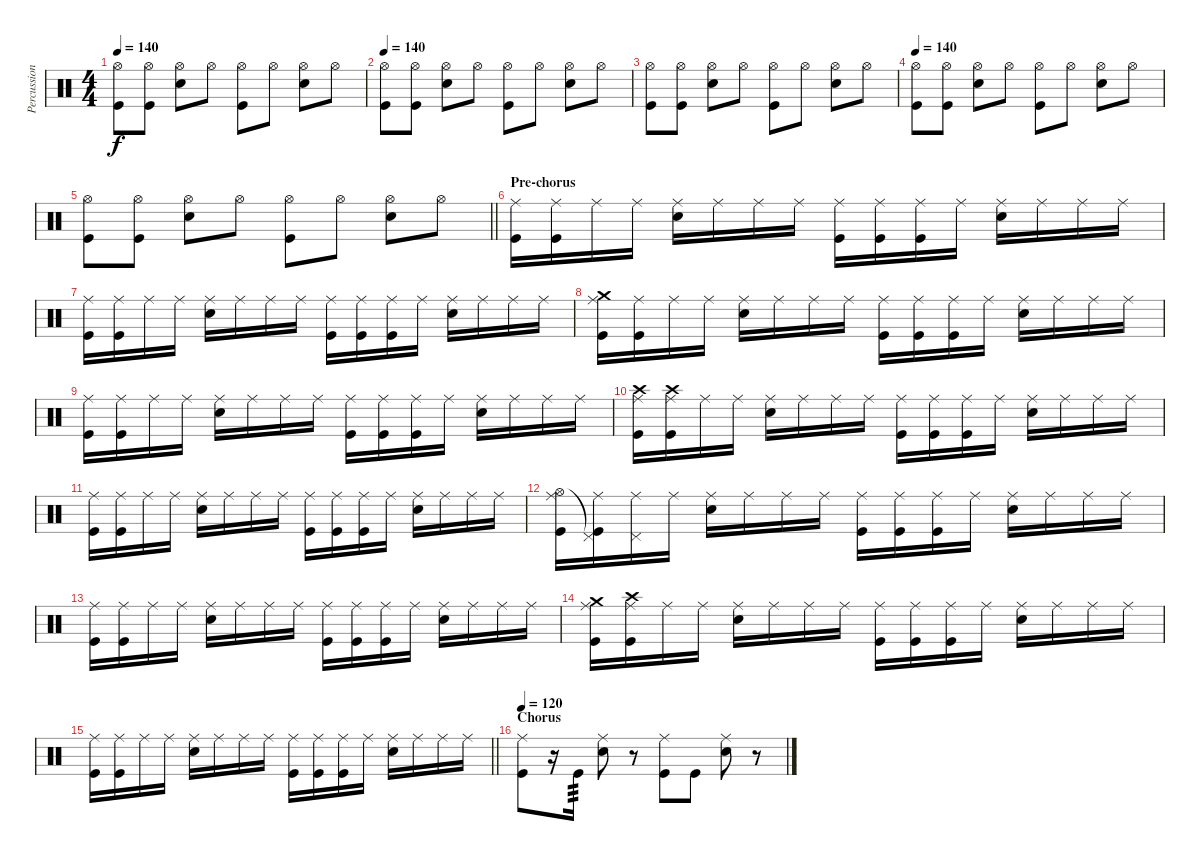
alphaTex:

\track ("Percussion" "Percussion") {instrument percussion}
\staff {score}
\articulation defaults
\ts (4 4)
\tempo 140
\clef neutral
\ks c
("Hi-Hat (open)" "Kick (hit)").8{dy f} ("Hi-Hat (open)" "Kick (hit)").8 ("Hi-Hat (open)" "Electric Snare (hit)").8 "Hi-Hat (open)".8 ("Hi-Hat (open)" "Kick (hit)").8 "Hi-Hat (open)".8 ("Hi-Hat (open)" "Electric Snare (hit)").8 "Hi-Hat (open)".8 |
\tempo 140
("Hi-Hat (open)" "Kick (hit)").8 ("Hi-Hat (open)" "Kick (hit)").8 ("Hi-Hat (open)" "Electric Snare (hit)").8 "Hi-Hat (open)".8 ("Hi-Hat (open)" "Kick (hit)").8 "Hi-Hat (open)".8 ("Hi-Hat (open)" "Electric Snare (hit)").8 "Hi-Hat (open)".8 |
("Hi-Hat (open)" "Kick (hit)").8 ("Hi-Hat (open)" "Kick (hit)").8 ("Hi-Hat (open)" "Electric Snare (hit)").8 "Hi-Hat (open)".8 ("Hi-Hat (open)" "Kick (hit)").8 "Hi-Hat (open)".8 ("Hi-Hat (open)" "Electric Snare (hit)").8 "Hi-Hat (open)".8 |
\tempo 140
("Hi-Hat (open)" "Kick (hit)").8 ("Hi-Hat (open)" "Kick (hit)").8 ("Hi-Hat (open)" "Electric Snare (hit)").8 "Hi-Hat (open)".8 ("Hi-Hat (open)" "Kick (hit)").8 "Hi-Hat (open)".8 ("Hi-Hat (open)" "Electric Snare (hit)").8 "Hi-Hat (open)".8 |
\barLineRight lightlight
("Hi-Hat (open)" "Kick (hit)").8 ("Hi-Hat (open)" "Kick (hit)").8 ("Hi-Hat (open)" "Electric Snare (hit)").8 "Hi-Hat (open)".8 ("Hi-Hat (open)" "Kick (hit)").8 "Hi-Hat (open)".8 ("Hi-Hat (open)" "Electric Snare (hit)").8 "Hi-Hat (open)".8 |
\section ("" "Pre-chorus")
("Ride (middle)" "Kick (hit)").16 ("Ride (middle)" "Kick (hit)").16 "Ride (middle)".16 "Ride (middle)".16 ("Ride (middle)" "Electric Snare (hit)").16 "Ride (middle)".16 "Ride (middle)".16 "Ride (middle)".16 ("Ride (middle)" "Kick (hit)").16 ("Ride (middle)" "Kick (hit)").16 ("Ride (middle)" "Kick (hit)").16 "Ride (middle)".16 ("Ride (middle)" "Electric Snare (hit)").16 "Ride (middle)".16 "Ride (middle)".16 "Ride (middle)".16 |
("Ride (middle)" "Kick (hit)").16 ("Ride (middle)" "Kick (hit)").16 "Ride (middle)".16 "Ride (middle)".16 ("Ride (middle)" "Electric Snare (hit)").16 "Ride (middle)".16 "Ride (middle)".16 "Ride (middle)".16 ("Ride (middle)" "Kick (hit)").16 ("Ride (middle)" "Kick (hit)").16 ("Ride (middle)" "Kick (hit)").16 "Ride (middle)".16 ("Ride (middle)" "Electric Snare (hit)").16 "Ride (middle)".16 "Ride (middle)".16 "Ride (middle)".16 |
("Crash medium (hit)" "Ride (middle)" "Kick (hit)").16 ("Ride (middle)" "Kick (hit)").16 "Ride (middle)".16 "Ride (middle)".16 ("Ride (middle)" "Electric Snare (hit)").16 "Ride (middle)".16 "Ride (middle)".16 "Ride (middle)".16 ("Ride (middle)" "Kick (hit)").16 ("Ride (middle)" "Kick (hit)").16 ("Ride (middle)" "Kick (hit)").16 "Ride (middle)".16 ("Ride (middle)" "Electric Snare (hit)").16 "Ride (middle)".16 "Ride (middle)".16 "Ride (middle)".16 |
("Ride (middle)" "Kick (hit)").16 ("Ride (middle)" "Kick (hit)").16 "Ride (middle)".16 "Ride (middle)".16 ("Ride (middle)" "Electric Snare (hit)").16 "Ride (middle)".16 "Ride (middle)".16 "Ride (middle)".16 ("Ride (middle)" "Kick (hit)").16 ("Ride (middle)" "Kick (hit)").16 ("Ride (middle)" "Kick (hit)").16 "Ride (middle)".16 ("Ride (middle)" "Electric Snare (hit)").16 "Ride (middle)".16 "Ride (middle)".16 "Ride (middle)".16 |
("Crash high (hit)" "Ride (middle)" "Kick (hit)").16 ("Crash high (hit)" "Ride (middle)" "Kick (hit)").16 "Ride (middle)".16 "Ride (middle)".16 ("Ride (middle)" "Electric Snare (hit)").16 "Ride (middle)".16 "Ride (middle)".16 "Ride (middle)".16 ("Ride (middle)" "Kick (hit)").16 ("Ride (middle)" "Kick (hit)").16 ("Ride (middle)" "Kick (hit)").16 "Ride (middle)".16 ("Ride (middle)" "Electric Snare (hit)").16 "Ride (middle)".16 "Ride (middle)".16 "Ride (middle)".16 |
("Ride (middle)" "Kick (hit)").16 ("Ride (middle)" "Kick (hit)").16 "Ride (middle)".16 "Ride (middle)".16 ("Ride (middle)" "Electric Snare (hit)").16 "Ride (middle)".16 "Ride (middle)".16 "Ride (middle)".16 ("Ride (middle)" "Kick (hit)").16 ("Ride (middle)" "Kick (hit)").16 ("Ride (middle)" "Kick (hit)").16 "Ride (middle)".16 ("Ride (middle)" "Electric Snare (hit)").16 "Ride (middle)".16 "Ride (middle)".16 "Ride (middle)".16 |
("Hi-Hat (open)" "Ride (middle)" "Kick (hit)").16 ("Pedal Hi-Hat (hit)"{t} "Ride (middle)" "Kick (hit)").16 ("Pedal Hi-Hat (hit)" "Ride (middle)").16 "Ride (middle)".16 ("Ride (middle)" "Electric Snare (hit)").16 "Ride (middle)".16 "Ride (middle)".16 "Ride (middle)".16 ("Ride (middle)" "Kick (hit)").16 ("Ride (middle)" "Kick (hit)").16 ("Ride (middle)" "Kick (hit)").16 "Ride (middle)".16 ("Ride (middle)" "Electric Snare (hit)").16 "Ride (middle)".16 "Ride (middle)".16 "Ride (middle)".16 |
("Ride (middle)" "Kick (hit)").16 ("Ride (middle)" "Kick (hit)").16 "Ride (middle)".16 "Ride (middle)".16 ("Ride (middle)" "Electric Snare (hit)").16 "Ride (middle)".16 "Ride (middle)".16 "Ride (middle)".16 ("Ride (middle)" "Kick (hit)").16 ("Ride (middle)" "Kick (hit)").16 ("Ride (middle)" "Kick (hit)").16 "Ride (middle)".16 ("Ride (middle)" "Electric Snare (hit)").16 "Ride (middle)".16 "Ride (middle)".16 "Ride (middle)".16 |
("Crash medium (hit)" "Ride (middle)" "Kick (hit)").16 ("Crash high (hit)" "Ride (middle)" "Kick (hit)").16 "Ride (middle)".16 "Ride (middle)".16 ("Ride (middle)" "Electric Snare (hit)").16 "Ride (middle)".16 "Ride (middle)".16 "Ride (middle)".16 ("Ride (middle)" "Kick (hit)").16 ("Ride (middle)" "Kick (hit)").16 ("Ride (middle)" "Kick (hit)").16 "Ride (middle)".16 ("Ride (middle)" "Electric Snare (hit)").16 "Ride (middle)".16 "Ride (middle)".16 "Ride (middle)".16 |
\barLineRight lightlight
("Ride (middle)" "Kick (hit)").16 ("Ride (middle)" "Kick (hit)").16 "Ride (middle)".16 "Ride (middle)".16 ("Ride (middle)" "Electric Snare (hit)").16 "Ride (middle)".16 "Ride (middle)".16 "Ride (middle)".16 ("Ride (middle)" "Kick (hit)").16 ("Ride (middle)" "Kick (hit)").16 ("Ride (middle)" "Kick (hit)").16 "Ride (middle)".16 ("Ride (middle)" "Electric Snare (hit)").16 "Ride (middle)".16 "Ride (middle)".16 "Ride (middle)".16 |
\section ("" "Chorus")
\tempo 120
("Ride (middle)" "Kick (hit)").8 r.16 "Kick (hit)".16{tp 3} ("Ride (middle)" "Electric Snare (hit)").8 r.8 ("Ride (middle)" "Kick (hit)").8 "Kick (hit)".8 ("Ride (middle)" "Electric Snare (hit)").8 r.8
